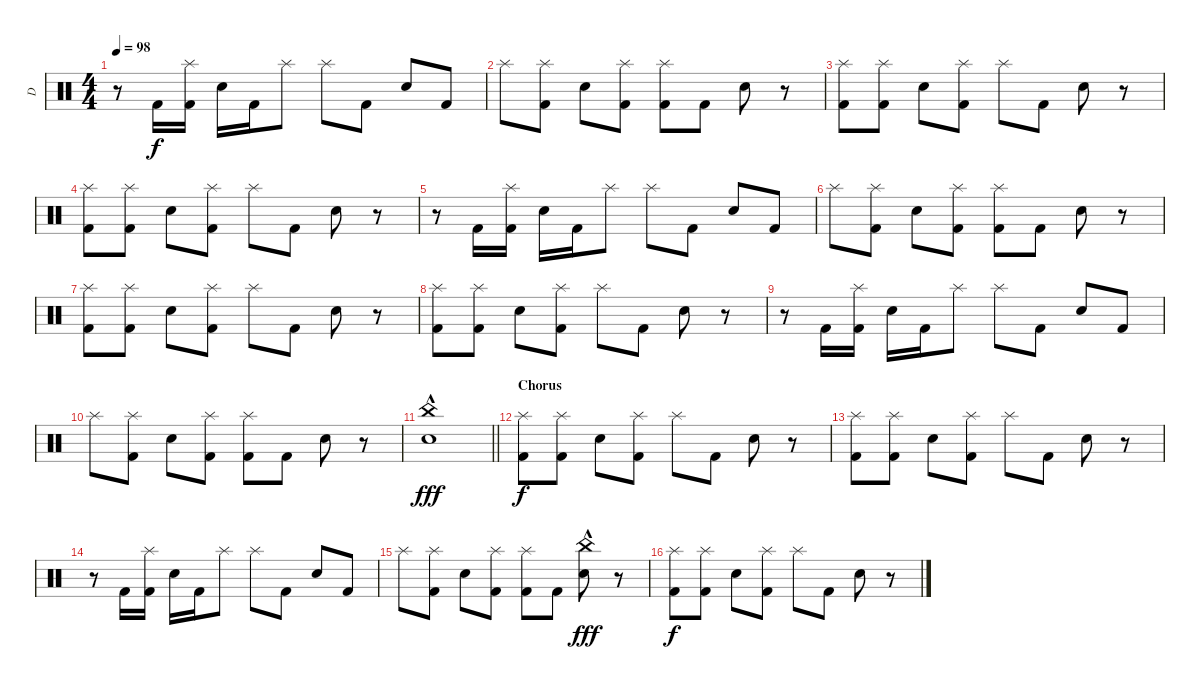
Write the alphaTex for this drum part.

\track ("D" "D") {instrument percussion}
\staff {score}
\articulation defaults
\ts (4 4)
\tempo 98
\clef neutral
\ks c
r.8{dy f} "Kick (hit) 2".16 ("Kick (hit) 2" "Splash (hit)").16 "Electric Snare (hit)".16 "Kick (hit) 2".16 "Splash (hit)".8 "Splash (hit)".8 "Kick (hit) 2".8 "Electric Snare (hit)".8 "Kick (hit) 2".8 |
"Splash (hit)".8 ("Kick (hit) 2" "Splash (hit)").8 "Electric Snare (hit)".8 ("Kick (hit) 2" "Splash (hit)").8 ("Kick (hit) 2" "Splash (hit)").8 "Kick (hit) 2".8 "Electric Snare (hit)".8 r.8 |
("Kick (hit) 2" "Splash (hit)").8 ("Kick (hit) 2" "Splash (hit)").8 "Electric Snare (hit)".8 ("Kick (hit) 2" "Splash (hit)").8 "Splash (hit)".8 "Kick (hit) 2".8 "Electric Snare (hit)".8 r.8 |
("Kick (hit) 2" "Splash (hit)").8 ("Kick (hit) 2" "Splash (hit)").8 "Electric Snare (hit)".8 ("Kick (hit) 2" "Splash (hit)").8 "Splash (hit)".8 "Kick (hit) 2".8 "Electric Snare (hit)".8 r.8 |
r.8 "Kick (hit) 2".16 ("Kick (hit) 2" "Splash (hit)").16 "Electric Snare (hit)".16 "Kick (hit) 2".16 "Splash (hit)".8 "Splash (hit)".8 "Kick (hit) 2".8 "Electric Snare (hit)".8 "Kick (hit) 2".8 |
"Splash (hit)".8 ("Kick (hit) 2" "Splash (hit)").8 "Electric Snare (hit)".8 ("Kick (hit) 2" "Splash (hit)").8 ("Kick (hit) 2" "Splash (hit)").8 "Kick (hit) 2".8 "Electric Snare (hit)".8 r.8 |
("Kick (hit) 2" "Splash (hit)").8 ("Kick (hit) 2" "Splash (hit)").8 "Electric Snare (hit)".8 ("Kick (hit) 2" "Splash (hit)").8 "Splash (hit)".8 "Kick (hit) 2".8 "Electric Snare (hit)".8 r.8 |
("Kick (hit) 2" "Splash (hit)").8 ("Kick (hit) 2" "Splash (hit)").8 "Electric Snare (hit)".8 ("Kick (hit) 2" "Splash (hit)").8 "Splash (hit)".8 "Kick (hit) 2".8 "Electric Snare (hit)".8 r.8 |
r.8 "Kick (hit) 2".16 ("Kick (hit) 2" "Splash (hit)").16 "Electric Snare (hit)".16 "Kick (hit) 2".16 "Splash (hit)".8 "Splash (hit)".8 "Kick (hit) 2".8 "Electric Snare (hit)".8 "Kick (hit) 2".8 |
"Splash (hit)".8 ("Kick (hit) 2" "Splash (hit)").8 "Electric Snare (hit)".8 ("Kick (hit) 2" "Splash (hit)").8 ("Kick (hit) 2" "Splash (hit)").8 "Kick (hit) 2".8 "Electric Snare (hit)".8 r.8 |
\barLineRight lightlight
("Electric Snare (hit)"{hac} "China (hit)").1{dy fff} |
\section ("" "Chorus")
("Kick (hit) 2" "Splash (hit)").8{dy f} ("Kick (hit) 2" "Splash (hit)").8 "Electric Snare (hit)".8 ("Kick (hit) 2" "Splash (hit)").8 "Splash (hit)".8 "Kick (hit) 2".8 "Electric Snare (hit)".8 r.8 |
("Kick (hit) 2" "Splash (hit)").8 ("Kick (hit) 2" "Splash (hit)").8 "Electric Snare (hit)".8 ("Kick (hit) 2" "Splash (hit)").8 "Splash (hit)".8 "Kick (hit) 2".8 "Electric Snare (hit)".8 r.8 |
r.8 "Kick (hit) 2".16 ("Kick (hit) 2" "Splash (hit)").16 "Electric Snare (hit)".16 "Kick (hit) 2".16 "Splash (hit)".8 "Splash (hit)".8 "Kick (hit) 2".8 "Electric Snare (hit)".8 "Kick (hit) 2".8 |
"Splash (hit)".8 ("Kick (hit) 2" "Splash (hit)").8 "Electric Snare (hit)".8 ("Kick (hit) 2" "Splash (hit)").8 ("Kick (hit) 2" "Splash (hit)").8 "Kick (hit) 2".8 ("Electric Snare (hit)"{hac} "China (hit)").8{dy fff} r.8 |
("Kick (hit) 2" "Splash (hit)").8{dy f} ("Kick (hit) 2" "Splash (hit)").8 "Electric Snare (hit)".8 ("Kick (hit) 2" "Splash (hit)").8 "Splash (hit)".8 "Kick (hit) 2".8 "Electric Snare (hit)".8 r.8
